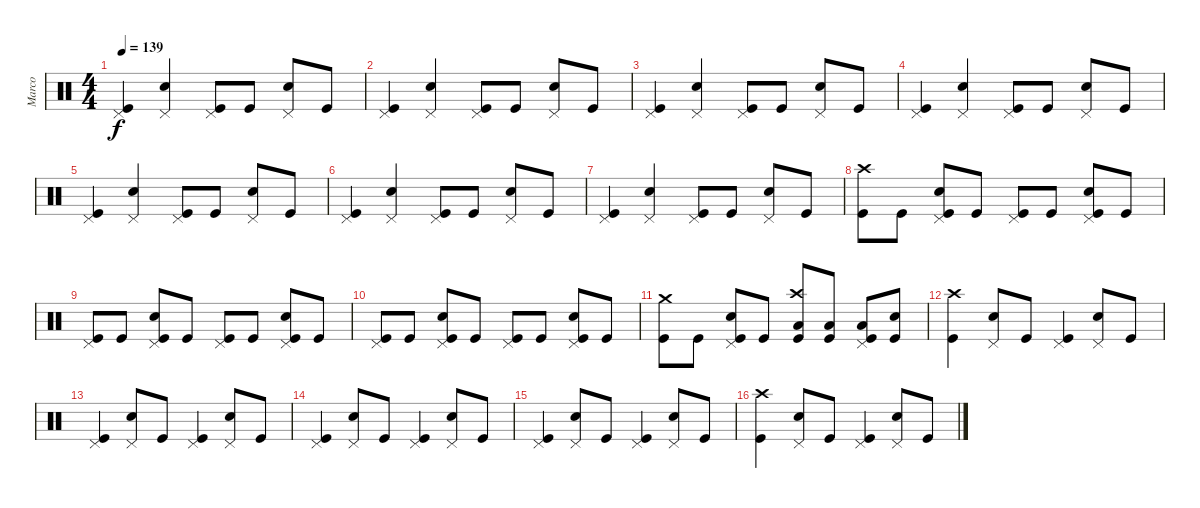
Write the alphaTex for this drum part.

\track ("Marco" "Marco") {instrument percussion}
\staff {score}
\articulation defaults
\ts (4 4)
\tempo 139
\clef neutral
\ks c
("Pedal Hi-Hat (hit)" "Kick (hit)").4{dy f} ("Pedal Hi-Hat (hit)" "Snare (hit) 2").4 ("Pedal Hi-Hat (hit)" "Kick (hit)").8 "Kick (hit)".8 ("Pedal Hi-Hat (hit)" "Snare (hit) 2").8 "Kick (hit)".8 |
("Pedal Hi-Hat (hit)" "Kick (hit)").4 ("Pedal Hi-Hat (hit)" "Snare (hit) 2").4 ("Pedal Hi-Hat (hit)" "Kick (hit)").8 "Kick (hit)".8 ("Pedal Hi-Hat (hit)" "Snare (hit) 2").8 "Kick (hit)".8 |
("Pedal Hi-Hat (hit)" "Kick (hit)").4 ("Pedal Hi-Hat (hit)" "Snare (hit) 2").4 ("Pedal Hi-Hat (hit)" "Kick (hit)").8 "Kick (hit)".8 ("Pedal Hi-Hat (hit)" "Snare (hit) 2").8 "Kick (hit)".8 |
("Pedal Hi-Hat (hit)" "Kick (hit)").4 ("Pedal Hi-Hat (hit)" "Snare (hit) 2").4 ("Pedal Hi-Hat (hit)" "Kick (hit)").8 "Kick (hit)".8 ("Pedal Hi-Hat (hit)" "Snare (hit) 2").8 "Kick (hit)".8 |
("Pedal Hi-Hat (hit)" "Kick (hit)").4 ("Pedal Hi-Hat (hit)" "Snare (hit) 2").4 ("Pedal Hi-Hat (hit)" "Kick (hit)").8 "Kick (hit)".8 ("Pedal Hi-Hat (hit)" "Snare (hit) 2").8 "Kick (hit)".8 |
("Pedal Hi-Hat (hit)" "Kick (hit)").4 ("Pedal Hi-Hat (hit)" "Snare (hit) 2").4 ("Pedal Hi-Hat (hit)" "Kick (hit)").8 "Kick (hit)".8 ("Pedal Hi-Hat (hit)" "Snare (hit) 2").8 "Kick (hit)".8 |
("Pedal Hi-Hat (hit)" "Kick (hit)").4 ("Pedal Hi-Hat (hit)" "Snare (hit) 2").4 ("Pedal Hi-Hat (hit)" "Kick (hit)").8 "Kick (hit)".8 ("Pedal Hi-Hat (hit)" "Snare (hit) 2").8 "Kick (hit)".8 |
("Crash high (hit)" "Kick (hit)").8 "Kick (hit)".8 ("Pedal Hi-Hat (hit)" "Snare (hit) 2" "Kick (hit)").8 "Kick (hit)".8 ("Pedal Hi-Hat (hit)" "Kick (hit)").8 "Kick (hit)".8 ("Pedal Hi-Hat (hit)" "Snare (hit) 2" "Kick (hit)").8 "Kick (hit)".8 |
("Pedal Hi-Hat (hit)" "Kick (hit)").8 "Kick (hit)".8 ("Pedal Hi-Hat (hit)" "Snare (hit) 2" "Kick (hit)").8 "Kick (hit)".8 ("Pedal Hi-Hat (hit)" "Kick (hit)").8 "Kick (hit)".8 ("Pedal Hi-Hat (hit)" "Snare (hit) 2" "Kick (hit)").8 "Kick (hit)".8 |
("Pedal Hi-Hat (hit)" "Kick (hit)").8 "Kick (hit)".8 ("Pedal Hi-Hat (hit)" "Snare (hit) 2" "Kick (hit)").8 "Kick (hit)".8 ("Pedal Hi-Hat (hit)" "Kick (hit)").8 "Kick (hit)".8 ("Pedal Hi-Hat (hit)" "Snare (hit) 2" "Kick (hit)").8 "Kick (hit)".8 |
("Crash medium (hit)" "Kick (hit)").8 "Kick (hit)".8 ("Pedal Hi-Hat (hit)" "Snare (hit) 2" "Kick (hit)").8 "Kick (hit)".8 ("Crash high (hit)" "Low Tom (hit)" "Kick (hit)").8 ("Low Tom (hit)" "Kick (hit)").8 ("Pedal Hi-Hat (hit)" "Low Tom (hit)" "Kick (hit)").8 ("Snare (hit) 2" "Kick (hit)").8 |
("Crash high (hit)" "Kick (hit)").4 ("Pedal Hi-Hat (hit)" "Snare (hit) 2").8 "Kick (hit)".8 ("Pedal Hi-Hat (hit)" "Kick (hit)").4 ("Pedal Hi-Hat (hit)" "Snare (hit) 2").8 "Kick (hit)".8 |
("Pedal Hi-Hat (hit)" "Kick (hit)").4 ("Pedal Hi-Hat (hit)" "Snare (hit) 2").8 "Kick (hit)".8 ("Pedal Hi-Hat (hit)" "Kick (hit)").4 ("Pedal Hi-Hat (hit)" "Snare (hit) 2").8 "Kick (hit)".8 |
("Pedal Hi-Hat (hit)" "Kick (hit)").4 ("Pedal Hi-Hat (hit)" "Snare (hit) 2").8 "Kick (hit)".8 ("Pedal Hi-Hat (hit)" "Kick (hit)").4 ("Pedal Hi-Hat (hit)" "Snare (hit) 2").8 "Kick (hit)".8 |
("Pedal Hi-Hat (hit)" "Kick (hit)").4 ("Pedal Hi-Hat (hit)" "Snare (hit) 2").8 "Kick (hit)".8 ("Pedal Hi-Hat (hit)" "Kick (hit)").4 ("Pedal Hi-Hat (hit)" "Snare (hit) 2").8 "Kick (hit)".8 |
("Crash high (hit)" "Kick (hit)").4 ("Pedal Hi-Hat (hit)" "Snare (hit) 2").8 "Kick (hit)".8 ("Pedal Hi-Hat (hit)" "Kick (hit)").4 ("Pedal Hi-Hat (hit)" "Snare (hit) 2").8 "Kick (hit)".8
